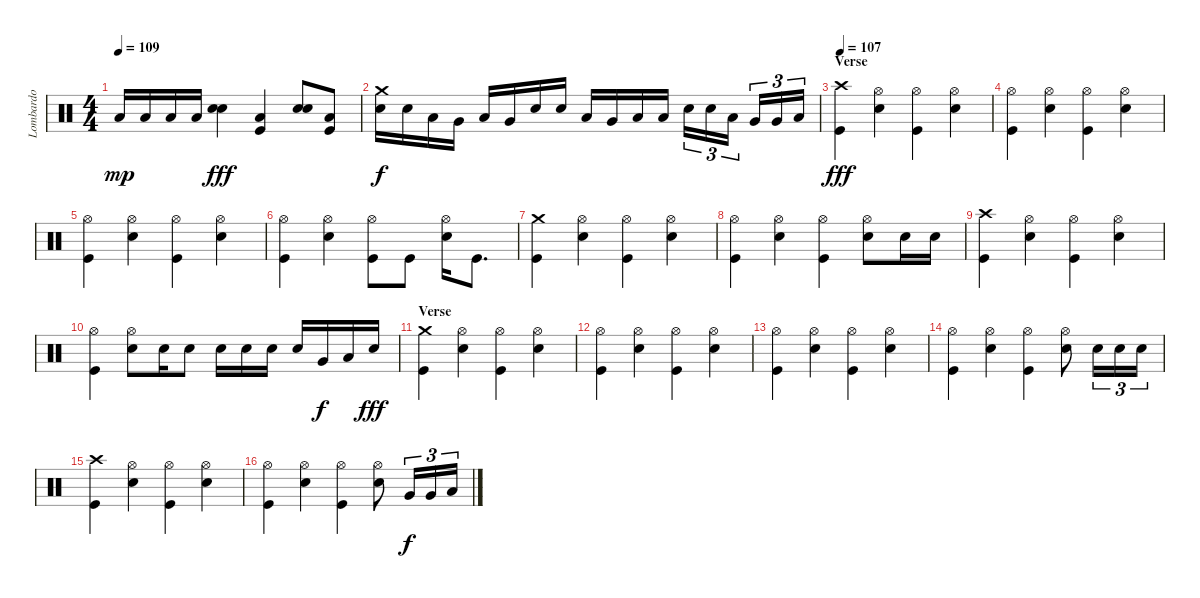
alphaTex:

\track ("Lombardo" "Lombardo") {instrument percussion}
\staff {score}
\articulation defaults
\ts (4 4)
\tempo 109
\clef neutral
\ks c "Low Tom (hit)".16{dy mp} "Low Tom (hit)".16 "Low Tom (hit)".16 "Low Tom (hit)".16
("Electric Snare (hit)" "Electric Snare (hit)").4{dy fff} ("Low Floor Tom (hit)" "Kick (hit)").4 ("Electric Snare (hit)" "Electric Snare (hit)").8 ("Low Floor Tom (hit)" "Kick (hit)").8 |
("Electric Snare (hit)" "Crash medium (hit)").16{dy f} "Electric Snare (hit)".16 "Low Tom (hit)".16 "Very Low Tom (hit)".16 "Low Floor Tom (hit)".16 "Very Low Tom (hit)".16 "Electric Snare (hit)".16 "Electric Snare (hit)".16 "Low Tom (hit)".16 "Very Low Tom (hit)".16 "Low Floor Tom (hit)".16 "Low Floor Tom (hit)".16 "Electric Snare (hit)".16{tu (3 2)} "Electric Snare (hit)".16{tu (3 2)} "Low Tom (hit)".16{tu (3 2)} "Very Low Tom (hit)".16{tu (3 2)} "Very Low Tom (hit)".16{tu (3 2)} "Low Floor Tom (hit)".16{tu (3 2)} |
\section ("" "Verse")
\tempo 107
("Kick (hit)" "Crash high (hit)").4{dy fff} ("Electric Snare (hit)" "Hi-Hat (open)").4 ("Kick (hit)" "Hi-Hat (open)").4 ("Electric Snare (hit)" "Hi-Hat (open)").4 |
("Kick (hit)" "Hi-Hat (open)").4 ("Electric Snare (hit)" "Hi-Hat (open)").4 ("Kick (hit)" "Hi-Hat (open)").4 ("Electric Snare (hit)" "Hi-Hat (open)").4 |
("Kick (hit)" "Hi-Hat (open)").4 ("Electric Snare (hit)" "Hi-Hat (open)").4 ("Kick (hit)" "Hi-Hat (open)").4 ("Electric Snare (hit)" "Hi-Hat (open)").4 |
("Kick (hit)" "Hi-Hat (open)").4 ("Electric Snare (hit)" "Hi-Hat (open)").4 ("Kick (hit)" "Hi-Hat (open)").8 "Kick (hit)".8 ("Electric Snare (hit)" "Hi-Hat (open)").16 "Kick (hit)".8{d} |
("Kick (hit)" "Crash medium (hit)").4 ("Electric Snare (hit)" "Hi-Hat (open)").4 ("Kick (hit)" "Hi-Hat (open)").4 ("Electric Snare (hit)" "Hi-Hat (open)").4 |
("Kick (hit)" "Hi-Hat (open)").4 ("Electric Snare (hit)" "Hi-Hat (open)").4 ("Kick (hit)" "Hi-Hat (open)").4 ("Electric Snare (hit)" "Hi-Hat (open)").8 "Electric Snare (hit)".16 "Electric Snare (hit)".16 |
("Kick (hit)" "Crash high (hit)").4 ("Electric Snare (hit)" "Hi-Hat (open)").4 ("Kick (hit)" "Hi-Hat (open)").4 ("Electric Snare (hit)" "Hi-Hat (open)").4 |
("Kick (hit)" "Hi-Hat (open)").4 ("Electric Snare (hit)" "Hi-Hat (open)").8 "Electric Snare (hit)".16 "Electric Snare (hit)".8 "Electric Snare (hit)".16 "Electric Snare (hit)".16 "Electric Snare (hit)".16 "Electric Snare (hit)".16 "Very Low Tom (hit)".16{dy f} "Low Floor Tom (hit)".16 "Electric Snare (hit)".16{dy fff} |
\section ("" "Verse")
("Kick (hit)" "Crash medium (hit)").4 ("Electric Snare (hit)" "Hi-Hat (open)").4 ("Kick (hit)" "Hi-Hat (open)").4 ("Electric Snare (hit)" "Hi-Hat (open)").4 |
("Kick (hit)" "Hi-Hat (open)").4 ("Electric Snare (hit)" "Hi-Hat (open)").4 ("Kick (hit)" "Hi-Hat (open)").4 ("Electric Snare (hit)" "Hi-Hat (open)").4 |
("Kick (hit)" "Hi-Hat (open)").4 ("Electric Snare (hit)" "Hi-Hat (open)").4 ("Kick (hit)" "Hi-Hat (open)").4 ("Electric Snare (hit)" "Hi-Hat (open)").4 |
("Kick (hit)" "Hi-Hat (open)").4 ("Electric Snare (hit)" "Hi-Hat (open)").4 ("Kick (hit)" "Hi-Hat (open)").4 ("Electric Snare (hit)" "Hi-Hat (open)").8 "Electric Snare (hit)".16{tu (3 2)} "Electric Snare (hit)".16{tu (3 2)} "Electric Snare (hit)".16{tu (3 2)} |
("Kick (hit)" "Crash high (hit)").4 ("Electric Snare (hit)" "Hi-Hat (open)").4 ("Kick (hit)" "Hi-Hat (open)").4 ("Electric Snare (hit)" "Hi-Hat (open)").4 |
("Kick (hit)" "Hi-Hat (open)").4 ("Electric Snare (hit)" "Hi-Hat (open)").4 ("Kick (hit)" "Hi-Hat (open)").4 ("Electric Snare (hit)" "Hi-Hat (open)").8 "Very Low Tom (hit)".16{tu (3 2) dy f} "Very Low Tom (hit)".16{tu (3 2)} "Low Floor Tom (hit)".16{tu (3 2)}
